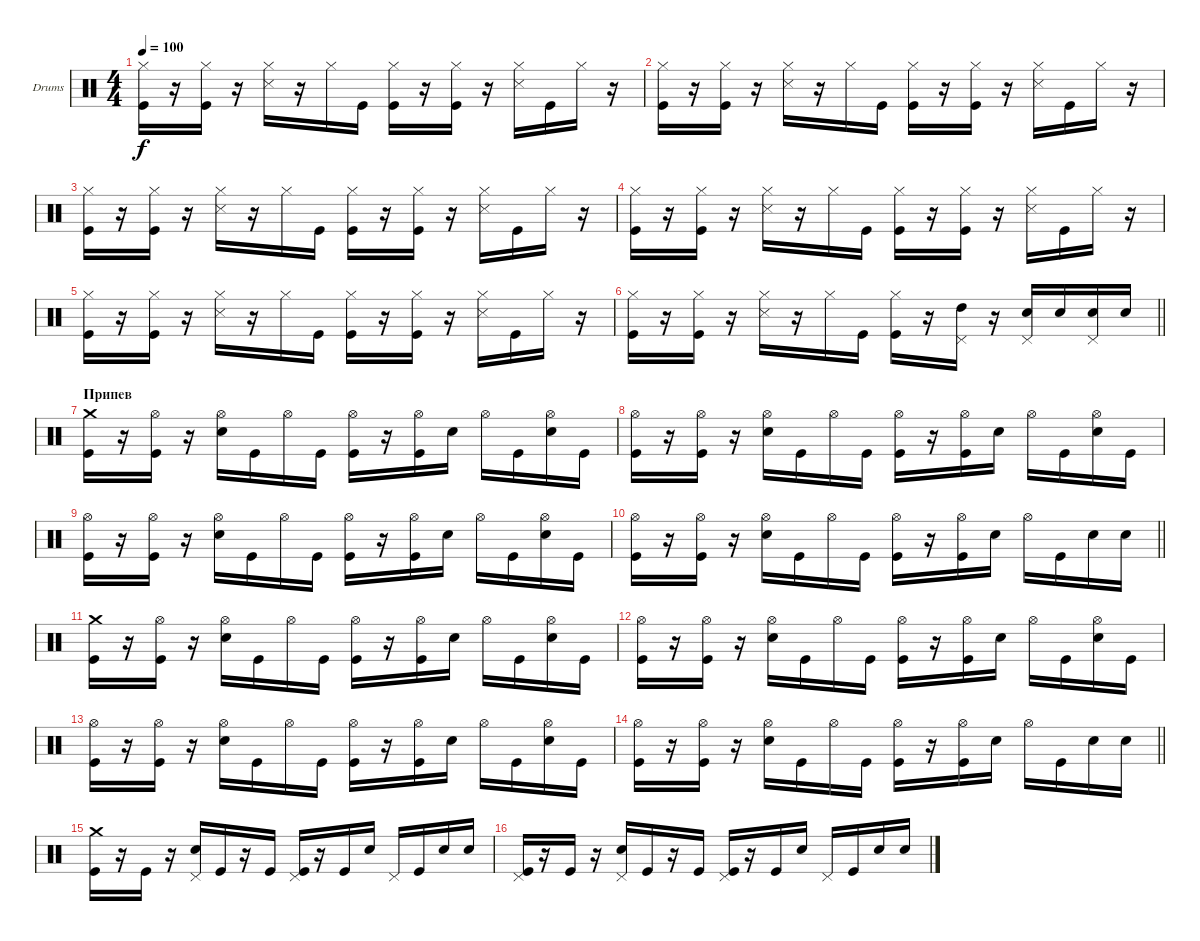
\bracketExtendMode groupsimilarinstruments
\firstSystemTrackNameOrientation horizontal
\otherSystemsTrackNameOrientation horizontal
\track ("Drumkit" "Drums") {instrument percussion}
\staff {score}
\articulation defaults
\ts (4 4)
\tempo 100
\clef neutral
\ks c
("Hi-Hat (closed)" "Kick (hit)").16{dy f} r.16 ("Hi-Hat (closed)" "Kick (hit)").16 r.16 ("Hi-Hat (closed)" "Snare (side stick) 3").16 r.16 "Hi-Hat (closed)".16 "Kick (hit)".16 ("Hi-Hat (closed)" "Kick (hit)").16 r.16 ("Hi-Hat (closed)" "Kick (hit)").16 r.16 ("Hi-Hat (closed)" "Snare (side stick) 3").16 "Kick (hit)".16 "Hi-Hat (closed)".16 r.16 |
("Hi-Hat (closed)" "Kick (hit)").16 r.16 ("Hi-Hat (closed)" "Kick (hit)").16 r.16 ("Hi-Hat (closed)" "Snare (side stick) 3").16 r.16 "Hi-Hat (closed)".16 "Kick (hit)".16 ("Hi-Hat (closed)" "Kick (hit)").16 r.16 ("Hi-Hat (closed)" "Kick (hit)").16 r.16 ("Hi-Hat (closed)" "Snare (side stick) 3").16 "Kick (hit)".16 "Hi-Hat (closed)".16 r.16 |
("Hi-Hat (closed)" "Kick (hit)").16 r.16 ("Hi-Hat (closed)" "Kick (hit)").16 r.16 ("Hi-Hat (closed)" "Snare (side stick) 3").16 r.16 "Hi-Hat (closed)".16 "Kick (hit)".16 ("Hi-Hat (closed)" "Kick (hit)").16 r.16 ("Hi-Hat (closed)" "Kick (hit)").16 r.16 ("Hi-Hat (closed)" "Snare (side stick) 3").16 "Kick (hit)".16 "Hi-Hat (closed)".16 r.16 |
("Hi-Hat (closed)" "Kick (hit)").16 r.16 ("Hi-Hat (closed)" "Kick (hit)").16 r.16 ("Hi-Hat (closed)" "Snare (side stick) 3").16 r.16 "Hi-Hat (closed)".16 "Kick (hit)".16 ("Hi-Hat (closed)" "Kick (hit)").16 r.16 ("Hi-Hat (closed)" "Kick (hit)").16 r.16 ("Hi-Hat (closed)" "Snare (side stick) 3").16 "Kick (hit)".16 "Hi-Hat (closed)".16 r.16 |
("Hi-Hat (closed)" "Kick (hit)").16 r.16 ("Hi-Hat (closed)" "Kick (hit)").16 r.16 ("Hi-Hat (closed)" "Snare (side stick) 3").16 r.16 "Hi-Hat (closed)".16 "Kick (hit)".16 ("Hi-Hat (closed)" "Kick (hit)").16 r.16 ("Hi-Hat (closed)" "Kick (hit)").16 r.16 ("Hi-Hat (closed)" "Snare (side stick) 3").16 "Kick (hit)".16 "Hi-Hat (closed)".16 r.16 |
\barLineRight lightlight
("Hi-Hat (closed)" "Kick (hit)").16 r.16 ("Hi-Hat (closed)" "Kick (hit)").16 r.16 ("Hi-Hat (closed)" "Snare (side stick) 3").16 r.16 "Hi-Hat (closed)".16 "Kick (hit)".16 ("Hi-Hat (closed)" "Kick (hit)").16 r.16 ("Pedal Hi-Hat (hit)" "High Tom (hit)").16 r.16 ("Pedal Hi-Hat (hit)" "Snare (hit) 2").16 "Snare (hit) 2".16 ("Pedal Hi-Hat (hit)" "Snare (hit) 2").16 "Snare (hit) 2".16 |
\section ("" "Припев")
("Crash medium (hit)" "Kick (hit)").16 r.16 ("Hi-Hat (open)" "Kick (hit)").16 r.16 ("Hi-Hat (open)" "Snare (hit) 2").16 "Kick (hit)".16 "Hi-Hat (open)".16 "Kick (hit)".16 ("Hi-Hat (open)" "Kick (hit)").16 r.16 ("Hi-Hat (open)" "Kick (hit)").16 "Snare (hit) 2".16 "Hi-Hat (open)".16 "Kick (hit)".16 ("Hi-Hat (open)" "Snare (hit) 2").16 "Kick (hit)".16 |
("Hi-Hat (open)" "Kick (hit)").16 r.16 ("Hi-Hat (open)" "Kick (hit)").16 r.16 ("Hi-Hat (open)" "Snare (hit) 2").16 "Kick (hit)".16 "Hi-Hat (open)".16 "Kick (hit)".16 ("Hi-Hat (open)" "Kick (hit)").16 r.16 ("Hi-Hat (open)" "Kick (hit)").16 "Snare (hit) 2".16 "Hi-Hat (open)".16 "Kick (hit)".16 ("Hi-Hat (open)" "Snare (hit) 2").16 "Kick (hit)".16 |
("Hi-Hat (open)" "Kick (hit)").16 r.16 ("Hi-Hat (open)" "Kick (hit)").16 r.16 ("Hi-Hat (open)" "Snare (hit) 2").16 "Kick (hit)".16 "Hi-Hat (open)".16 "Kick (hit)".16 ("Hi-Hat (open)" "Kick (hit)").16 r.16 ("Hi-Hat (open)" "Kick (hit)").16 "Snare (hit) 2".16 "Hi-Hat (open)".16 "Kick (hit)".16 ("Hi-Hat (open)" "Snare (hit) 2").16 "Kick (hit)".16 |
\barLineRight lightlight
("Hi-Hat (open)" "Kick (hit)").16 r.16 ("Hi-Hat (open)" "Kick (hit)").16 r.16 ("Hi-Hat (open)" "Snare (hit) 2").16 "Kick (hit)".16 "Hi-Hat (open)".16 "Kick (hit)".16 ("Hi-Hat (open)" "Kick (hit)").16 r.16 ("Hi-Hat (open)" "Kick (hit)").16 "Snare (hit) 2".16 "Hi-Hat (open)".16 "Kick (hit)".16 "Snare (hit) 2".16 "Snare (hit) 2".16 |
("Crash medium (hit)" "Kick (hit)").16 r.16 ("Hi-Hat (open)" "Kick (hit)").16 r.16 ("Hi-Hat (open)" "Snare (hit) 2").16 "Kick (hit)".16 "Hi-Hat (open)".16 "Kick (hit)".16 ("Hi-Hat (open)" "Kick (hit)").16 r.16 ("Hi-Hat (open)" "Kick (hit)").16 "Snare (hit) 2".16 "Hi-Hat (open)".16 "Kick (hit)".16 ("Hi-Hat (open)" "Snare (hit) 2").16 "Kick (hit)".16 |
("Hi-Hat (open)" "Kick (hit)").16 r.16 ("Hi-Hat (open)" "Kick (hit)").16 r.16 ("Hi-Hat (open)" "Snare (hit) 2").16 "Kick (hit)".16 "Hi-Hat (open)".16 "Kick (hit)".16 ("Hi-Hat (open)" "Kick (hit)").16 r.16 ("Hi-Hat (open)" "Kick (hit)").16 "Snare (hit) 2".16 "Hi-Hat (open)".16 "Kick (hit)".16 ("Hi-Hat (open)" "Snare (hit) 2").16 "Kick (hit)".16 |
("Hi-Hat (open)" "Kick (hit)").16 r.16 ("Hi-Hat (open)" "Kick (hit)").16 r.16 ("Hi-Hat (open)" "Snare (hit) 2").16 "Kick (hit)".16 "Hi-Hat (open)".16 "Kick (hit)".16 ("Hi-Hat (open)" "Kick (hit)").16 r.16 ("Hi-Hat (open)" "Kick (hit)").16 "Snare (hit) 2".16 "Hi-Hat (open)".16 "Kick (hit)".16 ("Hi-Hat (open)" "Snare (hit) 2").16 "Kick (hit)".16 |
\barLineRight lightlight
("Hi-Hat (open)" "Kick (hit)").16 r.16 ("Hi-Hat (open)" "Kick (hit)").16 r.16 ("Hi-Hat (open)" "Snare (hit) 2").16 "Kick (hit)".16 "Hi-Hat (open)".16 "Kick (hit)".16 ("Hi-Hat (open)" "Kick (hit)").16 r.16 ("Hi-Hat (open)" "Kick (hit)").16 "Snare (hit) 2".16 "Hi-Hat (open)".16 "Kick (hit)".16 "Snare (hit) 2".16 "Snare (hit) 2".16 |
("Crash medium (hit)" "Kick (hit)").16 r.16 "Kick (hit)".16 r.16 ("Pedal Hi-Hat (hit)" "Snare (hit) 2").16 "Kick (hit)".16 r.16 "Kick (hit)".16 ("Pedal Hi-Hat (hit)" "Kick (hit)").16 r.16 "Kick (hit)".16 "Snare (hit) 2".16 "Pedal Hi-Hat (hit)".16 "Kick (hit)".16 "Snare (hit) 2".16 "Snare (hit) 2".16 |
("Pedal Hi-Hat (hit)" "Kick (hit)").16 r.16 "Kick (hit)".16 r.16 ("Pedal Hi-Hat (hit)" "Snare (hit) 2").16 "Kick (hit)".16 r.16 "Kick (hit)".16 ("Pedal Hi-Hat (hit)" "Kick (hit)").16 r.16 "Kick (hit)".16 "Snare (hit) 2".16 "Pedal Hi-Hat (hit)".16 "Kick (hit)".16 "Snare (hit) 2".16 "Snare (hit) 2".16
